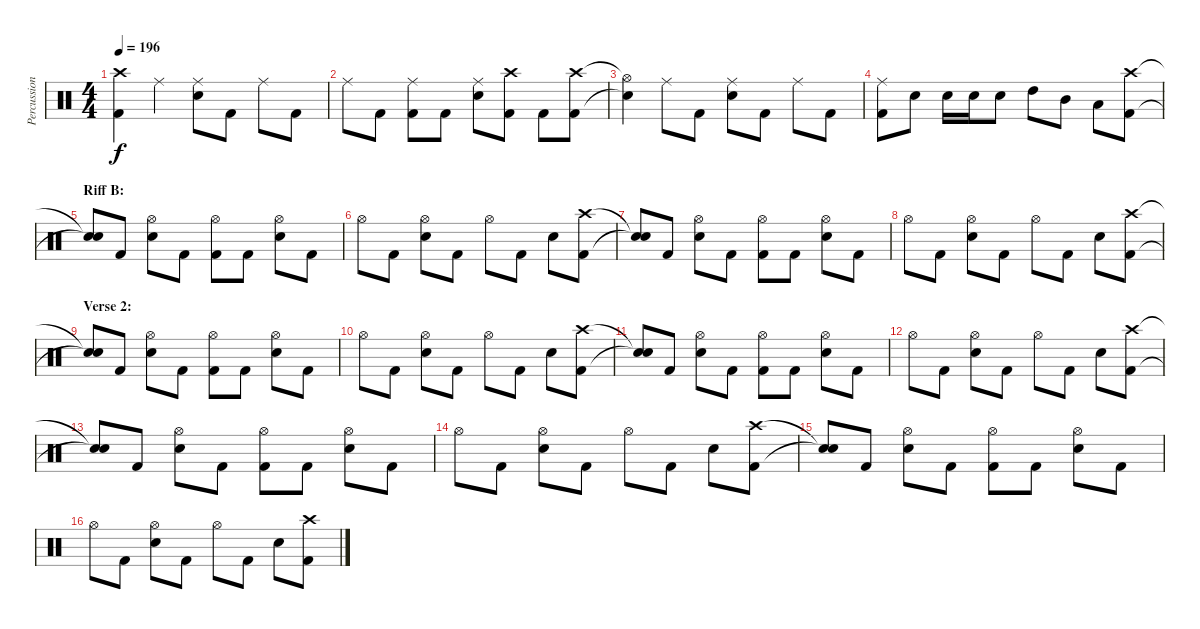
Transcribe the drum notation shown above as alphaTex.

\track ("Percussion" "Percussion") {instrument percussion}
\staff {score}
\articulation defaults
\ts (4 4)
\tempo 196
\clef neutral
\ks c
("Crash high (hit)" "Kick (hit) 2").4{dy f} "Ride (middle)".4 ("Ride (middle)" "Snare (hit) 2").8 "Kick (hit) 2".8 "Ride (middle)".8 "Kick (hit) 2".8 |
"Ride (middle)".8 "Kick (hit) 2".8 ("Ride (middle)" "Kick (hit) 2").8 "Kick (hit) 2".8 ("Ride (middle)" "Snare (hit) 2").8 ("Crash high (hit)" "Kick (hit) 2").8 "Kick (hit) 2".8 ("Crash high (hit)" "Kick (hit) 2").8 |
("Hi-Hat (open)"{t} "Snare (hit)"{t}).4 "Ride (middle)".8 "Kick (hit) 2".8 ("Ride (middle)" "Snare (hit) 2").8 "Kick (hit) 2".8 "Ride (middle)".8 "Kick (hit) 2".8 |
("Ride (middle)" "Kick (hit) 2").8 "Snare (hit) 2".8 "Snare (hit) 2".16 "Snare (hit) 2".16 "Snare (hit) 2".8 "High Tom (hit)".8 "Mid Tom (hit)".8 "Low Tom (hit)".8 ("Crash high (hit)" "Kick (hit) 2").8 |
\section ("" "Riff B:")
("Snare (hit)"{t} "Snare (hit)"{t}).8 "Kick (hit) 2".8 ("Hi-Hat (open)" "Snare (hit) 2").8 "Kick (hit) 2".8 ("Hi-Hat (open)" "Kick (hit) 2").8 "Kick (hit) 2".8 ("Hi-Hat (open)" "Snare (hit) 2").8 "Kick (hit) 2".8 |
"Hi-Hat (open)".8 "Kick (hit) 2".8 ("Hi-Hat (open)" "Snare (hit) 2").8 "Kick (hit) 2".8 "Hi-Hat (open)".8 "Kick (hit) 2".8 "Snare (hit) 2".8 ("Crash high (hit)" "Kick (hit) 2").8 |
("Snare (hit)"{t} "Snare (hit)"{t}).8 "Kick (hit) 2".8 ("Hi-Hat (open)" "Snare (hit) 2").8 "Kick (hit) 2".8 ("Hi-Hat (open)" "Kick (hit) 2").8 "Kick (hit) 2".8 ("Hi-Hat (open)" "Snare (hit) 2").8 "Kick (hit) 2".8 |
"Hi-Hat (open)".8 "Kick (hit) 2".8 ("Hi-Hat (open)" "Snare (hit) 2").8 "Kick (hit) 2".8 "Hi-Hat (open)".8 "Kick (hit) 2".8 "Snare (hit) 2".8 ("Crash high (hit)" "Kick (hit) 2").8 |
\section ("" "Verse 2:")
("Snare (hit)"{t} "Snare (hit)"{t}).8 "Kick (hit) 2".8 ("Hi-Hat (open)" "Snare (hit) 2").8 "Kick (hit) 2".8 ("Hi-Hat (open)" "Kick (hit) 2").8 "Kick (hit) 2".8 ("Hi-Hat (open)" "Snare (hit) 2").8 "Kick (hit) 2".8 |
"Hi-Hat (open)".8 "Kick (hit) 2".8 ("Hi-Hat (open)" "Snare (hit) 2").8 "Kick (hit) 2".8 "Hi-Hat (open)".8 "Kick (hit) 2".8 "Snare (hit) 2".8 ("Crash high (hit)" "Kick (hit) 2").8 |
("Snare (hit)"{t} "Snare (hit)"{t}).8 "Kick (hit) 2".8 ("Hi-Hat (open)" "Snare (hit) 2").8 "Kick (hit) 2".8 ("Hi-Hat (open)" "Kick (hit) 2").8 "Kick (hit) 2".8 ("Hi-Hat (open)" "Snare (hit) 2").8 "Kick (hit) 2".8 |
"Hi-Hat (open)".8 "Kick (hit) 2".8 ("Hi-Hat (open)" "Snare (hit) 2").8 "Kick (hit) 2".8 "Hi-Hat (open)".8 "Kick (hit) 2".8 "Snare (hit) 2".8 ("Crash high (hit)" "Kick (hit) 2").8 |
("Snare (hit)"{t} "Snare (hit)"{t}).8 "Kick (hit) 2".8 ("Hi-Hat (open)" "Snare (hit) 2").8 "Kick (hit) 2".8 ("Hi-Hat (open)" "Kick (hit) 2").8 "Kick (hit) 2".8 ("Hi-Hat (open)" "Snare (hit) 2").8 "Kick (hit) 2".8 |
"Hi-Hat (open)".8 "Kick (hit) 2".8 ("Hi-Hat (open)" "Snare (hit) 2").8 "Kick (hit) 2".8 "Hi-Hat (open)".8 "Kick (hit) 2".8 "Snare (hit) 2".8 ("Crash high (hit)" "Kick (hit) 2").8 |
("Snare (hit)"{t} "Snare (hit)"{t}).8 "Kick (hit) 2".8 ("Hi-Hat (open)" "Snare (hit) 2").8 "Kick (hit) 2".8 ("Hi-Hat (open)" "Kick (hit) 2").8 "Kick (hit) 2".8 ("Hi-Hat (open)" "Snare (hit) 2").8 "Kick (hit) 2".8 |
"Hi-Hat (open)".8 "Kick (hit) 2".8 ("Hi-Hat (open)" "Snare (hit) 2").8 "Kick (hit) 2".8 "Hi-Hat (open)".8 "Kick (hit) 2".8 "Snare (hit) 2".8 ("Crash high (hit)" "Kick (hit) 2").8
